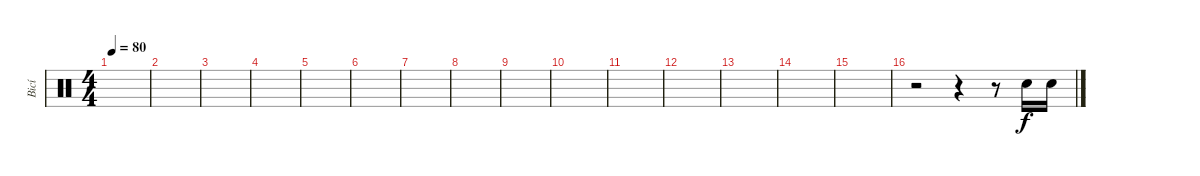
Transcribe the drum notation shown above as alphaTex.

\track ("Bicí" "Bicí") {instrument percussion}
\staff {score}
\articulation defaults
\ts (4 4)
\tempo 80
\clef neutral
\ks c
|
|
|
|
|
|
|
|
|
|
|
|
|
|
|
r.2 r.4 r.8 "Snare (hit) 2".16 "Snare (hit) 2".16
